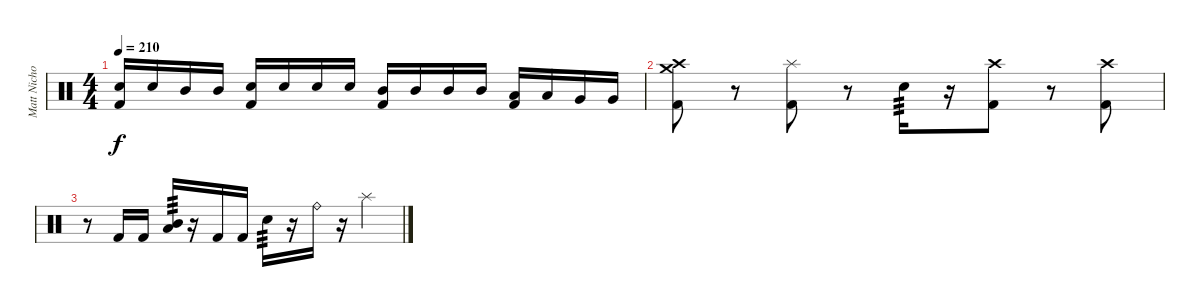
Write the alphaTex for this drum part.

\track ("Matt Nichols" "Matt Nicho") {instrument percussion}
\staff {score}
\articulation defaults
\ts (4 4)
\tempo 210
\clef neutral
\ks c
("Snare (hit) 2" "Kick (hit) 2").16{dy f} "Snare (hit) 2".16 "Mid Tom (hit)".16 "Mid Tom (hit)".16 ("Snare (hit) 2" "Kick (hit) 2").16 "Snare (hit) 2".16 "Snare (hit) 2".16 "Snare (hit) 2".16 ("Mid Tom (hit)" "Kick (hit) 2").16 "Mid Tom (hit)".16 "Mid Tom (hit)".16 "Mid Tom (hit)".16 ("Low Tom (hit)" "Kick (hit) 2").16 "Low Tom (hit)".16 "Very Low Tom (hit)".16 "Very Low Tom (hit)".16 |
("Crash high (hit)" "Crash medium (hit)" "Kick (hit) 2").8 r.8 ("Splash (hit)" "Kick (hit) 2").8 r.8 "Snare (hit) 2".16{tp 3} r.16 ("Crash high (hit)" "Kick (hit) 2").8 r.8 ("Crash high (hit)" "Kick (hit) 2").8 |
r.8{volume 0} "Kick (hit) 2".16{volume 16} "Kick (hit) 2".16 ("Mid Tom (hit)" "Low Tom (hit)").16{tp 3} r.16 "Kick (hit) 2".16 "Kick (hit) 2".16 "Snare (hit) 2".16{tp 3} r.16 "Ride (bell)".16 r.16{volume 0} "Splash (hit)".4{volume 16}
